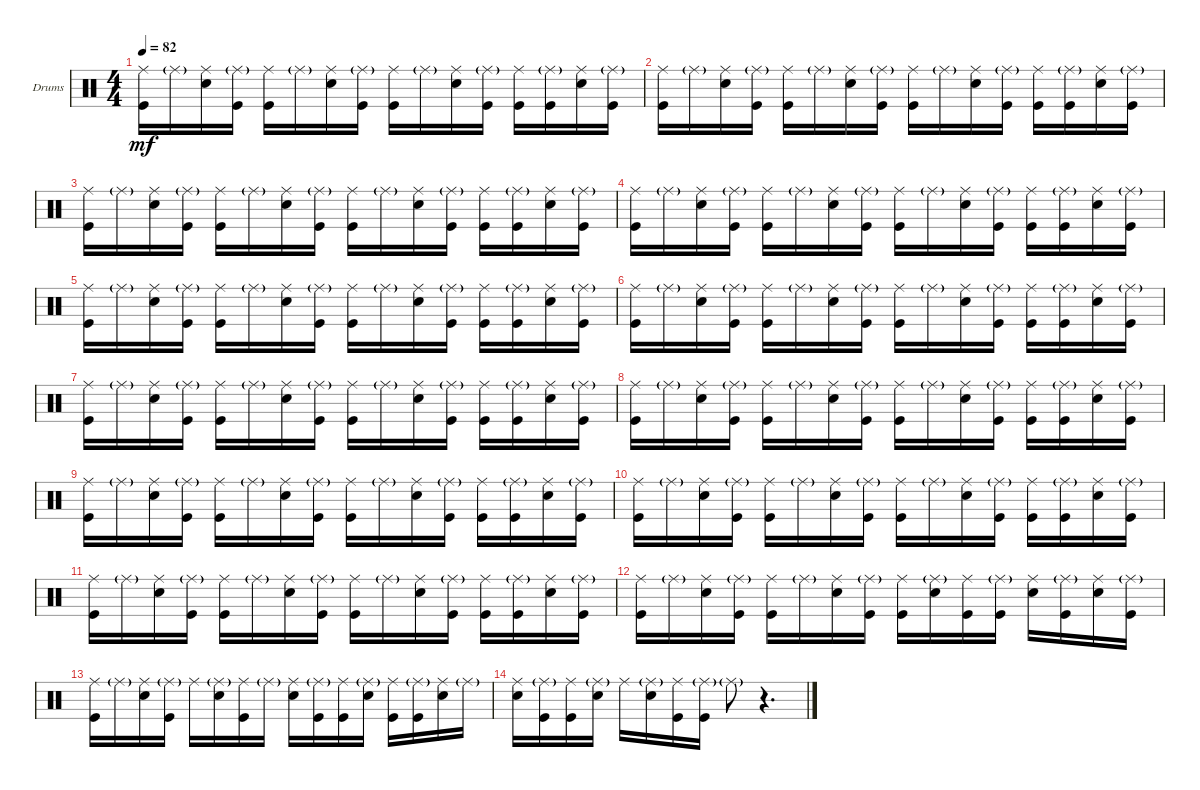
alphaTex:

\defaultSystemsLayout 4
\bracketExtendMode groupsimilarinstruments
\firstSystemTrackNameOrientation horizontal
\otherSystemsTrackNameOrientation horizontal
\track ("Drumkit" "Drums") {instrument percussion}
\staff {score}
\articulation defaults
\ts (4 4)
\tempo 82
\clef neutral
\scale
0.333333
\ks c
("Kick (hit)" "Ride (middle)").16{dy mf} "Ride (middle)"{g}.16 ("Snare (hit) 2" "Ride (middle)").16 ("Kick (hit)" "Ride (middle)"{g}).16 ("Kick (hit)" "Ride (middle)").16 "Ride (middle)"{g}.16 ("Snare (hit) 2" "Ride (middle)").16 ("Kick (hit)" "Ride (middle)"{g}).16 ("Kick (hit)" "Ride (middle)").16 "Ride (middle)"{g}.16 ("Snare (hit) 2" "Ride (middle)").16 ("Kick (hit)" "Ride (middle)"{g}).16 ("Kick (hit)" "Ride (middle)").16 ("Kick (hit)" "Ride (middle)"{g}).16 ("Snare (hit) 2" "Ride (middle)").16 ("Kick (hit)" "Ride (middle)"{g}).16 |
\scale
0.333333 ("Kick (hit)" "Ride (middle)").16 "Ride (middle)"{g}.16 ("Snare (hit) 2" "Ride (middle)").16 ("Kick (hit)" "Ride (middle)"{g}).16 ("Kick (hit)" "Ride (middle)").16 "Ride (middle)"{g}.16 ("Snare (hit) 2" "Ride (middle)").16 ("Kick (hit)" "Ride (middle)"{g}).16 ("Kick (hit)" "Ride (middle)").16 "Ride (middle)"{g}.16 ("Snare (hit) 2" "Ride (middle)").16 ("Kick (hit)" "Ride (middle)"{g}).16 ("Kick (hit)" "Ride (middle)").16 ("Kick (hit)" "Ride (middle)"{g}).16 ("Snare (hit) 2" "Ride (middle)").16 ("Kick (hit)" "Ride (middle)"{g}).16 |
\scale
0.333333 ("Kick (hit)" "Ride (middle)").16 "Ride (middle)"{g}.16 ("Snare (hit) 2" "Ride (middle)").16 ("Kick (hit)" "Ride (middle)"{g}).16 ("Kick (hit)" "Ride (middle)").16 "Ride (middle)"{g}.16 ("Snare (hit) 2" "Ride (middle)").16 ("Kick (hit)" "Ride (middle)"{g}).16 ("Kick (hit)" "Ride (middle)").16 "Ride (middle)"{g}.16 ("Snare (hit) 2" "Ride (middle)").16 ("Kick (hit)" "Ride (middle)"{g}).16 ("Kick (hit)" "Ride (middle)").16 ("Kick (hit)" "Ride (middle)"{g}).16 ("Snare (hit) 2" "Ride (middle)").16 ("Kick (hit)" "Ride (middle)"{g}).16 |
\scale
0.333333 ("Kick (hit)" "Ride (middle)").16 "Ride (middle)"{g}.16 ("Snare (hit) 2" "Ride (middle)").16 ("Kick (hit)" "Ride (middle)"{g}).16 ("Kick (hit)" "Ride (middle)").16 "Ride (middle)"{g}.16 ("Snare (hit) 2" "Ride (middle)").16 ("Kick (hit)" "Ride (middle)"{g}).16 ("Kick (hit)" "Ride (middle)").16 "Ride (middle)"{g}.16 ("Snare (hit) 2" "Ride (middle)").16 ("Kick (hit)" "Ride (middle)"{g}).16 ("Kick (hit)" "Ride (middle)").16 ("Kick (hit)" "Ride (middle)"{g}).16 ("Snare (hit) 2" "Ride (middle)").16 ("Kick (hit)" "Ride (middle)"{g}).16 |
\scale
0.333333 ("Kick (hit)" "Ride (middle)").16 "Ride (middle)"{g}.16 ("Snare (hit) 2" "Ride (middle)").16 ("Kick (hit)" "Ride (middle)"{g}).16 ("Kick (hit)" "Ride (middle)").16 "Ride (middle)"{g}.16 ("Snare (hit) 2" "Ride (middle)").16 ("Kick (hit)" "Ride (middle)"{g}).16 ("Kick (hit)" "Ride (middle)").16 "Ride (middle)"{g}.16 ("Snare (hit) 2" "Ride (middle)").16 ("Kick (hit)" "Ride (middle)"{g}).16 ("Kick (hit)" "Ride (middle)").16 ("Kick (hit)" "Ride (middle)"{g}).16 ("Snare (hit) 2" "Ride (middle)").16 ("Kick (hit)" "Ride (middle)"{g}).16 |
\scale
0.333333 ("Kick (hit)" "Ride (middle)").16 "Ride (middle)"{g}.16 ("Snare (hit) 2" "Ride (middle)").16 ("Kick (hit)" "Ride (middle)"{g}).16 ("Kick (hit)" "Ride (middle)").16 "Ride (middle)"{g}.16 ("Snare (hit) 2" "Ride (middle)").16 ("Kick (hit)" "Ride (middle)"{g}).16 ("Kick (hit)" "Ride (middle)").16 "Ride (middle)"{g}.16 ("Snare (hit) 2" "Ride (middle)").16 ("Kick (hit)" "Ride (middle)"{g}).16 ("Kick (hit)" "Ride (middle)").16 ("Kick (hit)" "Ride (middle)"{g}).16 ("Snare (hit) 2" "Ride (middle)").16 ("Kick (hit)" "Ride (middle)"{g}).16 |
\scale
0.333333 ("Kick (hit)" "Ride (middle)").16 "Ride (middle)"{g}.16 ("Snare (hit) 2" "Ride (middle)").16 ("Kick (hit)" "Ride (middle)"{g}).16 ("Kick (hit)" "Ride (middle)").16 "Ride (middle)"{g}.16 ("Snare (hit) 2" "Ride (middle)").16 ("Kick (hit)" "Ride (middle)"{g}).16 ("Kick (hit)" "Ride (middle)").16 "Ride (middle)"{g}.16 ("Snare (hit) 2" "Ride (middle)").16 ("Kick (hit)" "Ride (middle)"{g}).16 ("Kick (hit)" "Ride (middle)").16 ("Kick (hit)" "Ride (middle)"{g}).16 ("Snare (hit) 2" "Ride (middle)").16 ("Kick (hit)" "Ride (middle)"{g}).16 |
\scale
0.333333 ("Kick (hit)" "Ride (middle)").16 "Ride (middle)"{g}.16 ("Snare (hit) 2" "Ride (middle)").16 ("Kick (hit)" "Ride (middle)"{g}).16 ("Kick (hit)" "Ride (middle)").16 "Ride (middle)"{g}.16 ("Snare (hit) 2" "Ride (middle)").16 ("Kick (hit)" "Ride (middle)"{g}).16 ("Kick (hit)" "Ride (middle)").16 "Ride (middle)"{g}.16 ("Snare (hit) 2" "Ride (middle)").16 ("Kick (hit)" "Ride (middle)"{g}).16 ("Kick (hit)" "Ride (middle)").16 ("Kick (hit)" "Ride (middle)"{g}).16 ("Snare (hit) 2" "Ride (middle)").16 ("Kick (hit)" "Ride (middle)"{g}).16 |
\scale
0.333333 ("Kick (hit)" "Ride (middle)").16 "Ride (middle)"{g}.16 ("Snare (hit) 2" "Ride (middle)").16 ("Kick (hit)" "Ride (middle)"{g}).16 ("Kick (hit)" "Ride (middle)").16 "Ride (middle)"{g}.16 ("Snare (hit) 2" "Ride (middle)").16 ("Kick (hit)" "Ride (middle)"{g}).16 ("Kick (hit)" "Ride (middle)").16 "Ride (middle)"{g}.16 ("Snare (hit) 2" "Ride (middle)").16 ("Kick (hit)" "Ride (middle)"{g}).16 ("Kick (hit)" "Ride (middle)").16 ("Kick (hit)" "Ride (middle)"{g}).16 ("Snare (hit) 2" "Ride (middle)").16 ("Kick (hit)" "Ride (middle)"{g}).16 |
\scale
0.333333 ("Kick (hit)" "Ride (middle)").16 "Ride (middle)"{g}.16 ("Snare (hit) 2" "Ride (middle)").16 ("Kick (hit)" "Ride (middle)"{g}).16 ("Kick (hit)" "Ride (middle)").16 "Ride (middle)"{g}.16 ("Snare (hit) 2" "Ride (middle)").16 ("Kick (hit)" "Ride (middle)"{g}).16 ("Kick (hit)" "Ride (middle)").16 "Ride (middle)"{g}.16 ("Snare (hit) 2" "Ride (middle)").16 ("Kick (hit)" "Ride (middle)"{g}).16 ("Kick (hit)" "Ride (middle)").16 ("Kick (hit)" "Ride (middle)"{g}).16 ("Snare (hit) 2" "Ride (middle)").16 ("Kick (hit)" "Ride (middle)"{g}).16 |
\scale
0.333333 ("Kick (hit)" "Ride (middle)").16 "Ride (middle)"{g}.16 ("Snare (hit) 2" "Ride (middle)").16 ("Kick (hit)" "Ride (middle)"{g}).16 ("Kick (hit)" "Ride (middle)").16 "Ride (middle)"{g}.16 ("Snare (hit) 2" "Ride (middle)").16 ("Kick (hit)" "Ride (middle)"{g}).16 ("Kick (hit)" "Ride (middle)").16 "Ride (middle)"{g}.16 ("Snare (hit) 2" "Ride (middle)").16 ("Kick (hit)" "Ride (middle)"{g}).16 ("Kick (hit)" "Ride (middle)").16 ("Kick (hit)" "Ride (middle)"{g}).16 ("Snare (hit) 2" "Ride (middle)").16 ("Kick (hit)" "Ride (middle)"{g}).16 |
("Kick (hit)" "Ride (middle)").16 "Ride (middle)"{g}.16 ("Snare (hit) 2" "Ride (middle)").16 ("Kick (hit)" "Ride (middle)"{g}).16 ("Kick (hit)" "Ride (middle)").16 "Ride (middle)"{g}.16 ("Snare (hit) 2" "Ride (middle)").16 ("Kick (hit)" "Ride (middle)"{g}).16 ("Kick (hit)" "Ride (middle)").16 ("Snare (hit) 2" "Ride (middle)"{g}).16 ("Kick (hit)" "Ride (middle)").16 ("Kick (hit)" "Ride (middle)"{g}).16 ("Snare (hit) 2" "Ride (middle)").16 ("Kick (hit)" "Ride (middle)"{g}).16 ("Snare (hit) 2" "Ride (middle)").16 ("Kick (hit)" "Ride (middle)"{g}).16 |
("Kick (hit)" "Ride (middle)").16 "Ride (middle)"{g}.16 ("Snare (hit) 2" "Ride (middle)").16 ("Kick (hit)" "Ride (middle)"{g}).16 "Ride (middle)".16 ("Snare (hit) 2" "Ride (middle)"{g}).16 ("Kick (hit)" "Ride (middle)").16 "Ride (middle)"{g}.16 ("Snare (hit) 2" "Ride (middle)").16 ("Kick (hit)" "Ride (middle)"{g}).16 ("Kick (hit)" "Ride (middle)").16 ("Snare (hit) 2" "Ride (middle)"{g}).16 ("Kick (hit)" "Ride (middle)").16 ("Kick (hit)" "Ride (middle)"{g}).16 ("Snare (hit) 2" "Ride (middle)").16 "Ride (middle)"{g}.16 |
("Snare (hit) 2" "Ride (middle)").16 ("Kick (hit)" "Ride (middle)"{g}).16 ("Kick (hit)" "Ride (middle)").16 ("Snare (hit) 2" "Ride (middle)"{g}).16 "Ride (middle)".16 ("Snare (hit) 2" "Ride (middle)"{g}).16 ("Kick (hit)" "Ride (middle)").16 ("Kick (hit)" "Ride (middle)"{g}).16 "Ride (middle)"{g}.8 r.4{d}
